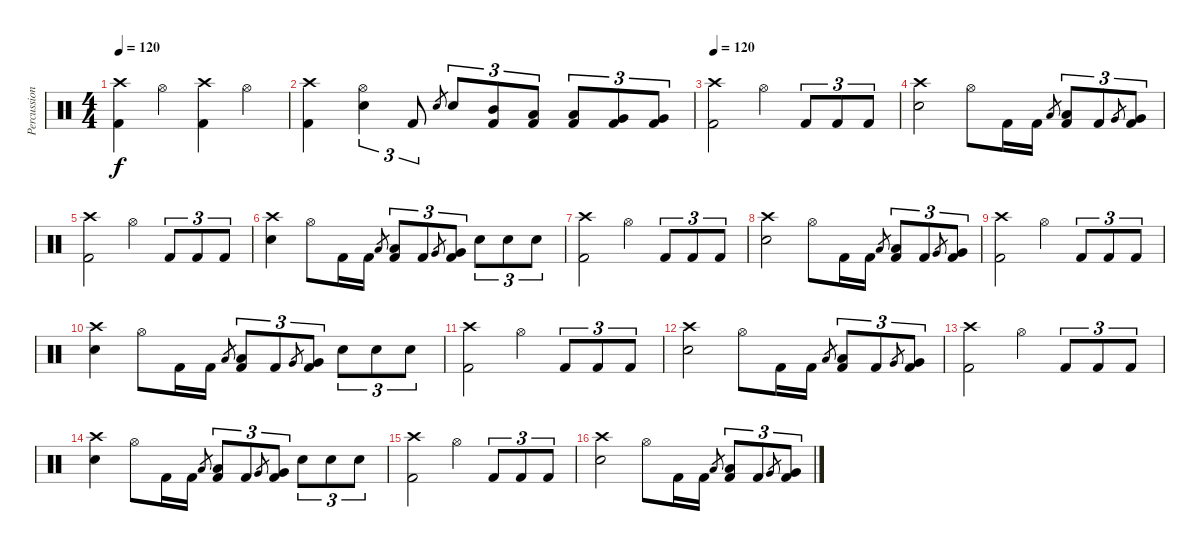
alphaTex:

\track ("Percussion" "Percussion") {instrument percussion}
\staff {score}
\articulation defaults
\ts (4 4)
\tempo 120
\clef neutral
\ks c
("Crash high (hit)" "Kick (hit) 2").4{dy f} "Hi-Hat (open)".4 ("Crash high (hit)" "Kick (hit) 2").4 "Hi-Hat (open)".4 |
("Crash high (hit)" "Kick (hit) 2").4 ("Hi-Hat (open)" "Electric Snare (hit)").4{tu (3 2)} "Kick (hit) 2".8{tu (3 2)} "Electric Snare (hit)".8{gr} "Electric Snare (hit)".8{tu (3 2)} ("Mid Tom (hit)" "Kick (hit) 2").8{tu (3 2)} ("Low Tom (hit)" "Kick (hit) 2").8{tu (3 2)} ("Low Tom (hit)" "Kick (hit) 2").8{tu (3 2)} ("Very Low Tom (hit)" "Kick (hit) 2").8{tu (3 2)} ("Very Low Tom (hit)" "Kick (hit) 2").8{tu (3 2)} |
\tempo 120
("Crash high (hit)" "Kick (hit) 2").2 "Hi-Hat (open)".4 "Kick (hit) 2".8{tu (3 2)} "Kick (hit) 2".8{tu (3 2)} "Kick (hit) 2".8{tu (3 2)} |
("Crash high (hit)" "Electric Snare (hit)").2 "Hi-Hat (open)".8 "Kick (hit) 2".16 "Kick (hit) 2".16 "Low Tom (hit)".8{gr} ("Low Tom (hit)" "Kick (hit) 2").8{tu (3 2)} "Kick (hit) 2".8{tu (3 2)} "Very Low Tom (hit)".8{gr} ("Very Low Tom (hit)" "Kick (hit) 2").8{tu (3 2)} |
("Crash high (hit)" "Kick (hit) 2").2 "Hi-Hat (open)".4 "Kick (hit) 2".8{tu (3 2)} "Kick (hit) 2".8{tu (3 2)} "Kick (hit) 2".8{tu (3 2)} |
("Crash high (hit)" "Electric Snare (hit)").4 "Hi-Hat (open)".8 "Kick (hit) 2".16 "Kick (hit) 2".16 "Low Tom (hit)".8{gr} ("Low Tom (hit)" "Kick (hit) 2").8{tu (3 2)} "Kick (hit) 2".8{tu (3 2)} "Very Low Tom (hit)".8{gr} ("Very Low Tom (hit)" "Kick (hit) 2").8{tu (3 2)} "Electric Snare (hit)".8{tu (3 2)} "Electric Snare (hit)".8{tu (3 2)} "Electric Snare (hit)".8{tu (3 2)} |
("Crash high (hit)" "Kick (hit) 2").2 "Hi-Hat (open)".4 "Kick (hit) 2".8{tu (3 2)} "Kick (hit) 2".8{tu (3 2)} "Kick (hit) 2".8{tu (3 2)} |
("Crash high (hit)" "Electric Snare (hit)").2 "Hi-Hat (open)".8 "Kick (hit) 2".16 "Kick (hit) 2".16 "Low Tom (hit)".8{gr} ("Low Tom (hit)" "Kick (hit) 2").8{tu (3 2)} "Kick (hit) 2".8{tu (3 2)} "Very Low Tom (hit)".8{gr} ("Very Low Tom (hit)" "Kick (hit) 2").8{tu (3 2)} |
("Crash high (hit)" "Kick (hit) 2").2 "Hi-Hat (open)".4 "Kick (hit) 2".8{tu (3 2)} "Kick (hit) 2".8{tu (3 2)} "Kick (hit) 2".8{tu (3 2)} |
("Crash high (hit)" "Electric Snare (hit)").4 "Hi-Hat (open)".8 "Kick (hit) 2".16 "Kick (hit) 2".16 "Low Tom (hit)".8{gr} ("Low Tom (hit)" "Kick (hit) 2").8{tu (3 2)} "Kick (hit) 2".8{tu (3 2)} "Very Low Tom (hit)".8{gr} ("Very Low Tom (hit)" "Kick (hit) 2").8{tu (3 2)} "Electric Snare (hit)".8{tu (3 2)} "Electric Snare (hit)".8{tu (3 2)} "Electric Snare (hit)".8{tu (3 2)} |
("Crash high (hit)" "Kick (hit) 2").2 "Hi-Hat (open)".4 "Kick (hit) 2".8{tu (3 2)} "Kick (hit) 2".8{tu (3 2)} "Kick (hit) 2".8{tu (3 2)} |
("Crash high (hit)" "Electric Snare (hit)").2 "Hi-Hat (open)".8 "Kick (hit) 2".16 "Kick (hit) 2".16 "Low Tom (hit)".8{gr} ("Low Tom (hit)" "Kick (hit) 2").8{tu (3 2)} "Kick (hit) 2".8{tu (3 2)} "Very Low Tom (hit)".8{gr} ("Very Low Tom (hit)" "Kick (hit) 2").8{tu (3 2)} |
("Crash high (hit)" "Kick (hit) 2").2 "Hi-Hat (open)".4 "Kick (hit) 2".8{tu (3 2)} "Kick (hit) 2".8{tu (3 2)} "Kick (hit) 2".8{tu (3 2)} |
("Crash high (hit)" "Electric Snare (hit)").4 "Hi-Hat (open)".8 "Kick (hit) 2".16 "Kick (hit) 2".16 "Low Tom (hit)".8{gr} ("Low Tom (hit)" "Kick (hit) 2").8{tu (3 2)} "Kick (hit) 2".8{tu (3 2)} "Very Low Tom (hit)".8{gr} ("Very Low Tom (hit)" "Kick (hit) 2").8{tu (3 2)} "Electric Snare (hit)".8{tu (3 2)} "Electric Snare (hit)".8{tu (3 2)} "Electric Snare (hit)".8{tu (3 2)} |
("Crash high (hit)" "Kick (hit) 2").2 "Hi-Hat (open)".4 "Kick (hit) 2".8{tu (3 2)} "Kick (hit) 2".8{tu (3 2)} "Kick (hit) 2".8{tu (3 2)} |
("Crash high (hit)" "Electric Snare (hit)").2 "Hi-Hat (open)".8 "Kick (hit) 2".16 "Kick (hit) 2".16 "Low Tom (hit)".8{gr} ("Low Tom (hit)" "Kick (hit) 2").8{tu (3 2)} "Kick (hit) 2".8{tu (3 2)} "Very Low Tom (hit)".8{gr} ("Very Low Tom (hit)" "Kick (hit) 2").8{tu (3 2)}
